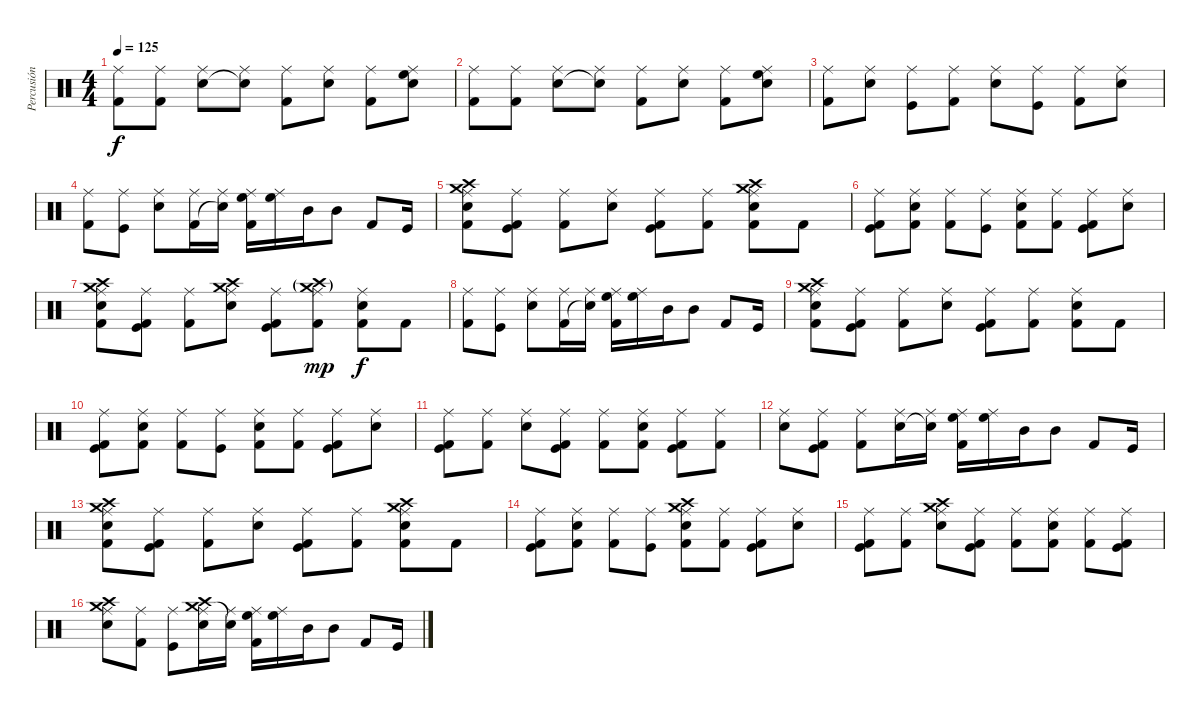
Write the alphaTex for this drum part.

\track ("Percusión" "Percusión") {instrument percussion}
\staff {score}
\articulation defaults
\ts (4 4)
\tempo 125
\clef neutral
\ks c
("Ride (middle)" "Kick (hit) 2").8{dy f} ("Ride (middle)" "Kick (hit) 2").8 ("Ride (middle)" "Snare (hit) 2").8 ("Ride (middle)" "Snare (hit) 2"{t}).8 ("Ride (middle)" "Kick (hit) 2").8 ("Ride (middle)" "Snare (hit) 2").8 ("Ride (middle)" "Kick (hit) 2").8 ("Ride (middle)" "High Floor Tom (hit)" "Snare (hit) 2").8 |
("Ride (middle)" "Kick (hit) 2").8 ("Ride (middle)" "Kick (hit) 2").8 ("Ride (middle)" "Snare (hit) 2").8 ("Ride (middle)" "Snare (hit) 2"{t}).8 ("Ride (middle)" "Kick (hit) 2").8 ("Ride (middle)" "Snare (hit) 2").8 ("Ride (middle)" "Kick (hit) 2").8 ("Ride (middle)" "High Floor Tom (hit)" "Snare (hit) 2").8 |
("Ride (middle)" "Kick (hit) 2").8 ("Ride (middle)" "Snare (hit) 2").8 ("Ride (middle)" "Kick (hit)").8 ("Ride (middle)" "Kick (hit) 2").8 ("Ride (middle)" "Snare (hit) 2").8 ("Ride (middle)" "Kick (hit)").8 ("Ride (middle)" "Kick (hit) 2").8 ("Ride (middle)" "Snare (hit) 2").8 |
("Ride (middle)" "Kick (hit) 2").8 ("Ride (middle)" "Kick (hit)").8 ("Ride (middle)" "Snare (hit) 2").8 ("Ride (middle)" "Kick (hit) 2").16 ("Ride (middle)" "Snare (hit)"{t}).16 ("Ride (middle)" "High Floor Tom (hit)" "Kick (hit) 2").16 ("Ride (middle)" "High Floor Tom (hit)").16 "Mid Tom (hit)".16 "Mid Tom (hit)".8 "Kick (hit) 2".8 "Kick (hit)".16 |
("Ride (middle)" "Crash medium (hit)" "Snare (hit) 2" "Kick (hit) 2" "Crash high (hit)").8 ("Ride (middle)" "Kick (hit)" "Kick (hit) 2").8 ("Ride (middle)" "Kick (hit) 2").8 ("Ride (middle)" "Snare (hit) 2").8 ("Ride (middle)" "Kick (hit)" "Kick (hit) 2").8 ("Ride (middle)" "Kick (hit) 2").8 ("Ride (middle)" "Crash medium (hit)" "Snare (hit) 2" "Kick (hit) 2" "Crash high (hit)").8 "Kick (hit) 2".8 |
("Ride (middle)" "Kick (hit)" "Kick (hit) 2").8 ("Ride (middle)" "Snare (hit) 2" "Kick (hit) 2").8 ("Ride (middle)" "Kick (hit) 2").8 ("Ride (middle)" "Kick (hit)").8 ("Ride (middle)" "Snare (hit) 2" "Kick (hit) 2").8 ("Ride (middle)" "Kick (hit) 2").8 ("Ride (middle)" "Kick (hit)" "Kick (hit) 2").8 ("Ride (middle)" "Snare (hit) 2").8 |
("Ride (middle)" "Crash medium (hit)" "Snare (hit) 2" "Kick (hit) 2" "Crash high (hit)").8 ("Ride (middle)" "Kick (hit)" "Kick (hit) 2").8 ("Ride (middle)" "Kick (hit) 2").8 ("Ride (middle)" "Crash medium (hit)" "Snare (hit) 2" "Crash high (hit)").8 ("Ride (middle)" "Kick (hit)" "Kick (hit) 2").8 ("Ride (middle)" "Crash medium (hit)"{g} "Kick (hit) 2" "Crash high (hit)"{g}).8{dy mp} ("Ride (middle)" "Snare (hit) 2" "Kick (hit) 2").8{dy f} "Kick (hit) 2".8 |
("Ride (middle)" "Kick (hit) 2").8 ("Ride (middle)" "Kick (hit)").8 ("Ride (middle)" "Snare (hit) 2").8 ("Ride (middle)" "Kick (hit) 2").16 ("Ride (middle)" "Snare (hit)"{t}).16 ("Ride (middle)" "High Floor Tom (hit)" "Kick (hit) 2").16 ("Ride (middle)" "High Floor Tom (hit)").16 "Mid Tom (hit)".16 "Mid Tom (hit)".8 "Kick (hit) 2".8 "Kick (hit)".16 |
("Ride (middle)" "Crash medium (hit)" "Snare (hit) 2" "Kick (hit) 2" "Crash high (hit)").8 ("Ride (middle)" "Kick (hit)" "Kick (hit) 2").8 ("Ride (middle)" "Kick (hit) 2").8 ("Ride (middle)" "Snare (hit) 2").8 ("Ride (middle)" "Kick (hit)" "Kick (hit) 2").8 ("Ride (middle)" "Kick (hit) 2").8 ("Ride (middle)" "Snare (hit) 2" "Kick (hit) 2").8 "Kick (hit) 2".8 |
("Ride (middle)" "Kick (hit)" "Kick (hit) 2").8 ("Ride (middle)" "Snare (hit) 2" "Kick (hit) 2").8 ("Ride (middle)" "Kick (hit) 2").8 ("Ride (middle)" "Kick (hit)").8 ("Ride (middle)" "Snare (hit) 2" "Kick (hit) 2").8 ("Ride (middle)" "Kick (hit) 2").8 ("Ride (middle)" "Kick (hit)" "Kick (hit) 2").8 ("Ride (middle)" "Snare (hit) 2").8 |
("Ride (middle)" "Kick (hit)" "Kick (hit) 2").8 ("Ride (middle)" "Kick (hit) 2").8 ("Ride (middle)" "Snare (hit) 2").8 ("Ride (middle)" "Kick (hit)" "Kick (hit) 2").8 ("Ride (middle)" "Kick (hit) 2").8 ("Ride (middle)" "Snare (hit) 2" "Kick (hit) 2").8 ("Ride (middle)" "Kick (hit) 2" "Kick (hit)").8 ("Ride (middle)" "Kick (hit) 2").8 |
("Ride (middle)" "Snare (hit) 2").8 ("Ride (middle)" "Kick (hit)" "Kick (hit) 2").8 ("Ride (middle)" "Kick (hit) 2").8 ("Ride (middle)" "Snare (hit) 2").16 ("Ride (middle)" "Snare (hit)"{t}).16 ("Ride (middle)" "High Floor Tom (hit)" "Kick (hit) 2").16 ("Ride (middle)" "High Floor Tom (hit)").16 "Mid Tom (hit)".16 "Mid Tom (hit)".8 "Kick (hit) 2".8 "Kick (hit)".16 |
("Ride (middle)" "Crash medium (hit)" "Snare (hit) 2" "Kick (hit) 2" "Crash high (hit)").8 ("Ride (middle)" "Kick (hit)" "Kick (hit) 2").8 ("Ride (middle)" "Kick (hit) 2").8 ("Ride (middle)" "Snare (hit) 2").8 ("Ride (middle)" "Kick (hit)" "Kick (hit) 2").8 ("Ride (middle)" "Kick (hit) 2").8 ("Ride (middle)" "Crash medium (hit)" "Snare (hit) 2" "Kick (hit) 2" "Crash high (hit)").8 "Kick (hit) 2".8 |
("Ride (middle)" "Kick (hit)" "Kick (hit) 2").8 ("Ride (middle)" "Snare (hit) 2" "Kick (hit) 2").8 ("Ride (middle)" "Kick (hit) 2").8 ("Ride (middle)" "Kick (hit)").8 ("Ride (middle)" "Crash high (hit)" "Snare (hit) 2" "Kick (hit) 2" "Crash medium (hit)").8 ("Ride (middle)" "Kick (hit) 2").8 ("Ride (middle)" "Kick (hit)" "Kick (hit) 2").8 ("Ride (middle)" "Snare (hit) 2").8 |
("Ride (middle)" "Kick (hit)" "Kick (hit) 2").8 ("Ride (middle)" "Kick (hit) 2").8 ("Ride (middle)" "Crash medium (hit)" "Snare (hit) 2" "Crash high (hit)").8 ("Ride (middle)" "Kick (hit)" "Kick (hit) 2").8 ("Ride (middle)" "Kick (hit) 2").8 ("Ride (middle)" "Snare (hit) 2" "Kick (hit) 2").8 ("Ride (middle)" "Kick (hit) 2").8 ("Ride (middle)" "Kick (hit)" "Kick (hit) 2").8 |
("Ride (middle)" "Crash medium (hit)" "Snare (hit) 2" "Crash high (hit)").8 ("Ride (middle)" "Kick (hit) 2").8 ("Ride (middle)" "Kick (hit)").8 ("Ride (middle)" "Crash medium (hit)" "Snare (hit) 2" "Crash high (hit)").16 ("Ride (middle)" "Snare (hit)"{t}).16 ("Ride (middle)" "High Floor Tom (hit)" "Kick (hit) 2").16 ("Ride (middle)" "High Floor Tom (hit)").16 "Mid Tom (hit)".16 "Mid Tom (hit)".8 "Kick (hit) 2".8 "Kick (hit)".16
